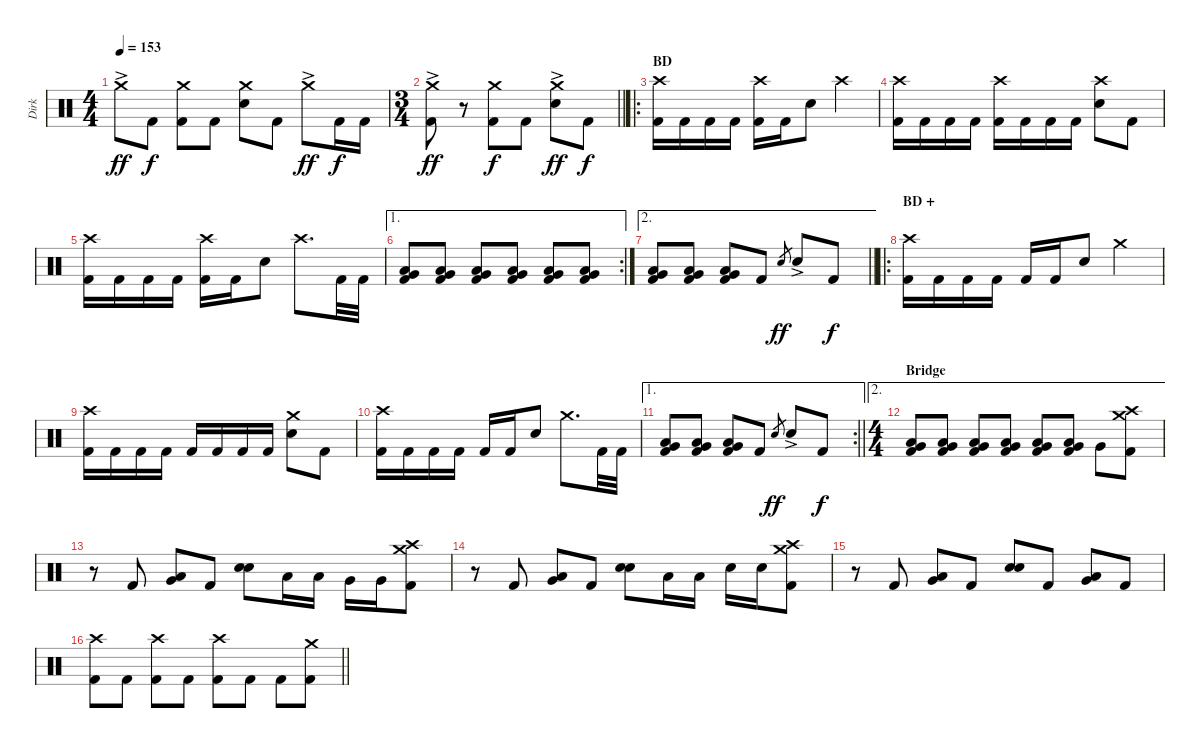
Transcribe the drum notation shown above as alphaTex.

\track ("Dirk" "Dirk") {instrument percussion}
\staff {score}
\articulation defaults
\ts (4 4)
\tempo 153
\clef neutral
\ks c "Crash medium (hit)"{ac}.8{dy ff} "Kick (hit) 2".8{dy f}
("Crash medium (hit)" "Kick (hit) 2").8 "Kick (hit) 2".8 ("Crash medium (hit)" "Electric Snare (hit)").8 "Kick (hit) 2".8 "Crash medium (hit)"{ac}.8{dy ff} "Kick (hit) 2".16{dy f} "Kick (hit) 2".16 |
\ts (3 4)
\barLineRight lightlight
("Crash medium (hit)"{ac} "Kick (hit) 2").8{dy ff} r.8 ("Crash medium (hit)" "Kick (hit) 2").8{dy f} "Kick (hit) 2".8 ("Crash medium (hit)" "Electric Snare (hit)"{ac}).8{dy ff} "Kick (hit) 2".8{dy f} |
\ro
\section ("" "BD")
("Crash high (hit)" "Kick (hit) 2").16 "Kick (hit) 2".16 "Kick (hit) 2".16 "Kick (hit) 2".16 ("Crash high (hit)" "Kick (hit) 2").16 "Kick (hit) 2".16 "Electric Snare (hit)".8 "Crash high (hit)".4 |
("Crash high (hit)" "Kick (hit) 2").16 "Kick (hit) 2".16 "Kick (hit) 2".16 "Kick (hit) 2".16 ("Crash high (hit)" "Kick (hit) 2").16 "Kick (hit) 2".16 "Kick (hit) 2".16 "Kick (hit) 2".16 ("Crash high (hit)" "Electric Snare (hit)").8 "Kick (hit) 2".8 |
("Crash high (hit)" "Kick (hit) 2").16 "Kick (hit) 2".16 "Kick (hit) 2".16 "Kick (hit) 2".16 ("Crash high (hit)" "Kick (hit) 2").16 "Kick (hit) 2".16 "Electric Snare (hit)".8 "Crash high (hit)".8{d} "Kick (hit) 2".32 "Kick (hit) 2".32 |
\ae 1
\rc 2
("Low Floor Tom (hit)" "Very Low Tom (hit)" "Kick (hit) 2").8 ("Low Floor Tom (hit)" "Very Low Tom (hit)" "Kick (hit) 2").8 ("Low Floor Tom (hit)" "Very Low Tom (hit)" "Kick (hit) 2").8 ("Low Floor Tom (hit)" "Very Low Tom (hit)" "Kick (hit) 2").8 ("Low Floor Tom (hit)" "Very Low Tom (hit)" "Kick (hit) 2").8 ("Low Floor Tom (hit)" "Very Low Tom (hit)" "Kick (hit) 2").8 |
\ae 2
\barLineRight lightlight
("Low Floor Tom (hit)" "Very Low Tom (hit)" "Kick (hit) 2").8 ("Low Floor Tom (hit)" "Very Low Tom (hit)" "Kick (hit) 2").8 ("Low Floor Tom (hit)" "Very Low Tom (hit)" "Kick (hit) 2").8 "Kick (hit) 2".8 "Electric Snare (hit)".8{gr dy ff} "Electric Snare (hit)"{ac}.8 "Kick (hit) 2".8{dy f} |
\ro
\section ("" "BD +")
("Crash high (hit)" "Kick (hit) 2").16 "Kick (hit) 2".16 "Kick (hit) 2".16 "Kick (hit) 2".16 "Kick (hit) 2".16 "Kick (hit) 2".16 "Electric Snare (hit)".8 "Crash medium (hit)".4 |
("Crash high (hit)" "Kick (hit) 2").16 "Kick (hit) 2".16 "Kick (hit) 2".16 "Kick (hit) 2".16 "Kick (hit) 2".16 "Kick (hit) 2".16 "Kick (hit) 2".16 "Kick (hit) 2".16 ("Crash medium (hit)" "Electric Snare (hit)").8 "Kick (hit) 2".8 |
("Crash high (hit)" "Kick (hit) 2").16 "Kick (hit) 2".16 "Kick (hit) 2".16 "Kick (hit) 2".16 "Kick (hit) 2".16 "Kick (hit) 2".16 "Electric Snare (hit)".8 "Crash medium (hit)".8{d} "Kick (hit) 2".32 "Kick (hit) 2".32 |
\ae 1
\rc 2
\barLineRight lightlight
("Low Floor Tom (hit)" "Very Low Tom (hit)" "Kick (hit) 2").8 ("Low Floor Tom (hit)" "Very Low Tom (hit)" "Kick (hit) 2").8 ("Low Floor Tom (hit)" "Very Low Tom (hit)" "Kick (hit) 2").8 "Kick (hit) 2".8 "Electric Snare (hit)".8{gr dy ff} "Electric Snare (hit)"{ac}.8 "Kick (hit) 2".8{dy f} |
\ae 2
\ts (4 4)
\section ("" "Bridge")
("Low Floor Tom (hit)" "Very Low Tom (hit)" "Kick (hit) 2").8 ("Low Floor Tom (hit)" "Very Low Tom (hit)" "Kick (hit) 2").8 ("Low Floor Tom (hit)" "Very Low Tom (hit)" "Kick (hit) 2").8 ("Low Floor Tom (hit)" "Very Low Tom (hit)" "Kick (hit) 2").8 ("Low Floor Tom (hit)" "Very Low Tom (hit)" "Kick (hit) 2").8 ("Low Floor Tom (hit)" "Very Low Tom (hit)" "Kick (hit) 2").8 "Very Low Tom (hit)".8 ("Crash medium (hit)" "Crash high (hit)" "Kick (hit) 2").8 |
r.8 "Kick (hit) 2".8 ("Low Tom (hit)" "Very Low Tom (hit)").8 "Kick (hit) 2".8 ("Electric Snare (hit)" "Electric Snare (hit)").8 "Low Tom (hit)".16 "Low Tom (hit)".16 "Very Low Tom (hit)".16 "Very Low Tom (hit)".16 ("Crash medium (hit)" "Crash high (hit)" "Kick (hit) 2").8 |
r.8 "Kick (hit) 2".8 ("Low Tom (hit)" "Very Low Tom (hit)").8 "Kick (hit) 2".8 ("Electric Snare (hit)" "Electric Snare (hit)").8 "Low Tom (hit)".16 "Low Tom (hit)".16 "Electric Snare (hit)".16 "Electric Snare (hit)".16 ("Crash medium (hit)" "Crash high (hit)" "Kick (hit) 2").8 |
r.8 "Kick (hit) 2".8 ("Low Tom (hit)" "Very Low Tom (hit)").8 "Kick (hit) 2".8 ("Electric Snare (hit)" "Electric Snare (hit)").8 "Kick (hit) 2".8 ("Low Tom (hit)" "Very Low Tom (hit)").8 "Kick (hit) 2".8 |
\barLineRight lightlight
("Crash high (hit)" "Kick (hit) 2").8 "Kick (hit) 2".8 ("Crash high (hit)" "Kick (hit) 2").8 "Kick (hit) 2".8 ("Crash high (hit)" "Kick (hit) 2").8 "Kick (hit) 2".8 "Kick (hit) 2".8 ("Crash medium (hit)" "Kick (hit) 2").8
